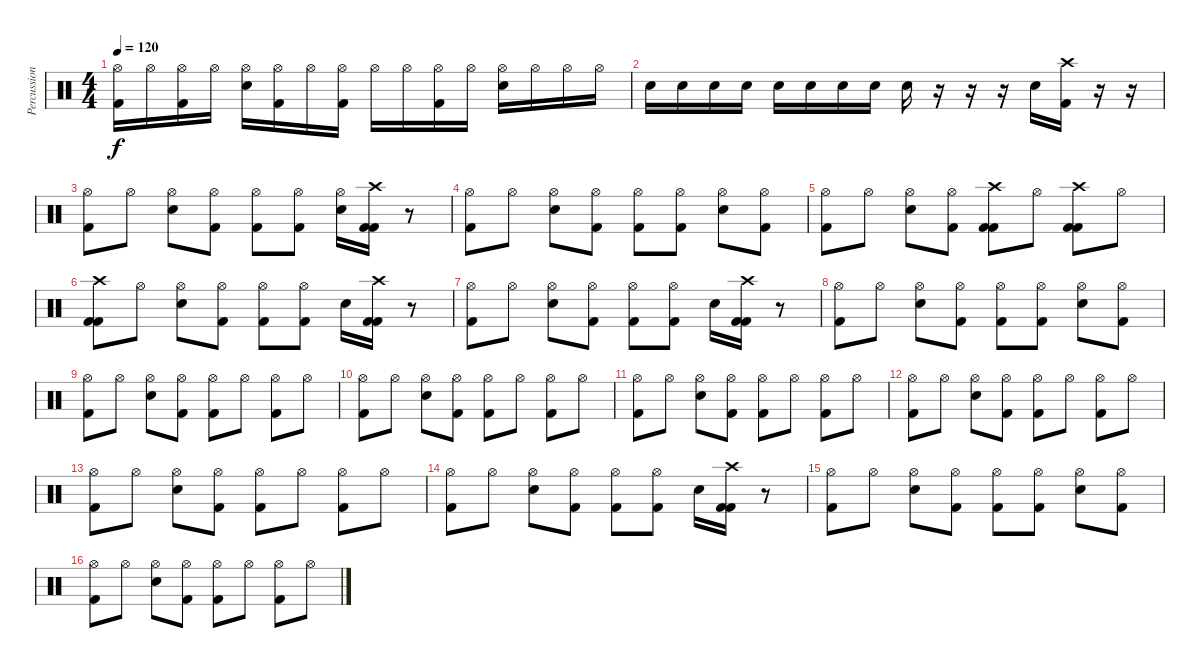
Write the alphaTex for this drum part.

\track ("Percussion" "Percussion") {instrument percussion}
\staff {score}
\articulation defaults
\ts (4 4)
\tempo 120
\clef neutral
\ks c
("Hi-Hat (open)" "Kick (hit) 2").16{dy f} "Hi-Hat (open)".16 ("Hi-Hat (open)" "Kick (hit) 2").16 "Hi-Hat (open)".16 ("Hi-Hat (open)" "Snare (hit) 2").16 ("Hi-Hat (open)" "Kick (hit) 2").16 "Hi-Hat (open)".16 ("Hi-Hat (open)" "Kick (hit) 2").16 "Hi-Hat (open)".16 "Hi-Hat (open)".16 ("Hi-Hat (open)" "Kick (hit) 2").16 "Hi-Hat (open)".16 ("Hi-Hat (open)" "Snare (hit) 2").16 "Hi-Hat (open)".16 "Hi-Hat (open)".16 "Hi-Hat (open)".16 |
"Snare (hit) 2".16 "Snare (hit) 2".16 "Snare (hit) 2".16 "Snare (hit) 2".16 "Snare (hit) 2".16 "Snare (hit) 2".16 "Snare (hit) 2".16 "Snare (hit) 2".16 "Snare (hit) 2".16 r.16 r.16 r.16 "Electric Snare (hit)".16 ("Crash high (hit)" "Kick (hit) 2").16 r.16 r.16 |
("Hi-Hat (open)" "Kick (hit) 2").8 "Hi-Hat (open)".8 ("Hi-Hat (open)" "Snare (hit) 2").8 ("Hi-Hat (open)" "Kick (hit) 2").8 ("Hi-Hat (open)" "Kick (hit) 2").8 ("Hi-Hat (open)" "Kick (hit) 2").8 ("Hi-Hat (open)" "Snare (hit) 2").16 ("Crash high (hit)" "Kick (hit) 2" "Kick (hit) 2").16 r.8 |
("Hi-Hat (open)" "Kick (hit) 2").8 "Hi-Hat (open)".8 ("Hi-Hat (open)" "Snare (hit) 2").8 ("Hi-Hat (open)" "Kick (hit) 2").8 ("Hi-Hat (open)" "Kick (hit) 2").8 ("Hi-Hat (open)" "Kick (hit) 2").8 ("Hi-Hat (open)" "Snare (hit) 2").8 ("Hi-Hat (open)" "Kick (hit) 2").8 |
("Hi-Hat (open)" "Kick (hit) 2").8 "Hi-Hat (open)".8 ("Hi-Hat (open)" "Snare (hit) 2").8 ("Hi-Hat (open)" "Kick (hit) 2").8 ("Crash high (hit)" "Kick (hit) 2" "Kick (hit) 2").8 "Hi-Hat (open)".8 ("Crash high (hit)" "Kick (hit) 2" "Kick (hit) 2").8 "Hi-Hat (open)".8 |
("Crash high (hit)" "Kick (hit) 2" "Kick (hit) 2").8 "Hi-Hat (open)".8 ("Hi-Hat (open)" "Snare (hit) 2").8 ("Hi-Hat (open)" "Kick (hit) 2").8 ("Hi-Hat (open)" "Kick (hit) 2").8 ("Hi-Hat (open)" "Kick (hit) 2").8 "Snare (hit) 2".16 ("Crash high (hit)" "Kick (hit) 2" "Kick (hit) 2").16 r.8 |
("Hi-Hat (open)" "Kick (hit) 2").8 "Hi-Hat (open)".8 ("Hi-Hat (open)" "Snare (hit) 2").8 ("Hi-Hat (open)" "Kick (hit) 2").8 ("Hi-Hat (open)" "Kick (hit) 2").8 ("Hi-Hat (open)" "Kick (hit) 2").8 "Snare (hit) 2".16 ("Crash high (hit)" "Kick (hit) 2" "Kick (hit) 2").16 r.8 |
("Hi-Hat (open)" "Kick (hit) 2").8 "Hi-Hat (open)".8 ("Hi-Hat (open)" "Snare (hit) 2").8 ("Hi-Hat (open)" "Kick (hit) 2").8 ("Hi-Hat (open)" "Kick (hit) 2").8 ("Hi-Hat (open)" "Kick (hit) 2").8 ("Hi-Hat (open)" "Snare (hit) 2").8 ("Hi-Hat (open)" "Kick (hit) 2").8 |
("Hi-Hat (open)" "Kick (hit) 2").8 "Hi-Hat (open)".8 ("Hi-Hat (open)" "Snare (hit) 2").8 ("Hi-Hat (open)" "Kick (hit) 2").8 ("Hi-Hat (open)" "Kick (hit) 2").8 "Hi-Hat (open)".8 ("Hi-Hat (open)" "Kick (hit) 2").8 "Hi-Hat (open)".8 |
("Hi-Hat (open)" "Kick (hit) 2").8 "Hi-Hat (open)".8 ("Hi-Hat (open)" "Snare (hit) 2").8 ("Hi-Hat (open)" "Kick (hit) 2").8 ("Hi-Hat (open)" "Kick (hit) 2").8 "Hi-Hat (open)".8 ("Hi-Hat (open)" "Kick (hit) 2").8 "Hi-Hat (open)".8 |
("Hi-Hat (open)" "Kick (hit) 2").8 "Hi-Hat (open)".8 ("Hi-Hat (open)" "Snare (hit) 2").8 ("Hi-Hat (open)" "Kick (hit) 2").8 ("Hi-Hat (open)" "Kick (hit) 2").8 "Hi-Hat (open)".8 ("Hi-Hat (open)" "Kick (hit) 2").8 "Hi-Hat (open)".8 |
("Hi-Hat (open)" "Kick (hit) 2").8 "Hi-Hat (open)".8 ("Hi-Hat (open)" "Snare (hit) 2").8 ("Hi-Hat (open)" "Kick (hit) 2").8 ("Hi-Hat (open)" "Kick (hit) 2").8 "Hi-Hat (open)".8 ("Hi-Hat (open)" "Kick (hit) 2").8 "Hi-Hat (open)".8 |
("Hi-Hat (open)" "Kick (hit) 2").8 "Hi-Hat (open)".8 ("Hi-Hat (open)" "Snare (hit) 2").8 ("Hi-Hat (open)" "Kick (hit) 2").8 ("Hi-Hat (open)" "Kick (hit) 2").8 "Hi-Hat (open)".8 ("Hi-Hat (open)" "Kick (hit) 2").8 "Hi-Hat (open)".8 |
("Hi-Hat (open)" "Kick (hit) 2").8 "Hi-Hat (open)".8 ("Hi-Hat (open)" "Snare (hit) 2").8 ("Hi-Hat (open)" "Kick (hit) 2").8 ("Hi-Hat (open)" "Kick (hit) 2").8 ("Hi-Hat (open)" "Kick (hit) 2").8 "Snare (hit) 2".16 ("Crash high (hit)" "Kick (hit) 2" "Kick (hit) 2").16 r.8 |
("Hi-Hat (open)" "Kick (hit) 2").8 "Hi-Hat (open)".8 ("Hi-Hat (open)" "Snare (hit) 2").8 ("Hi-Hat (open)" "Kick (hit) 2").8 ("Hi-Hat (open)" "Kick (hit) 2").8 ("Hi-Hat (open)" "Kick (hit) 2").8 ("Hi-Hat (open)" "Snare (hit) 2").8 ("Hi-Hat (open)" "Kick (hit) 2").8 |
("Hi-Hat (open)" "Kick (hit) 2").8 "Hi-Hat (open)".8 ("Hi-Hat (open)" "Snare (hit) 2").8 ("Hi-Hat (open)" "Kick (hit) 2").8 ("Hi-Hat (open)" "Kick (hit) 2").8 "Hi-Hat (open)".8 ("Hi-Hat (open)" "Kick (hit) 2").8 "Hi-Hat (open)".8
